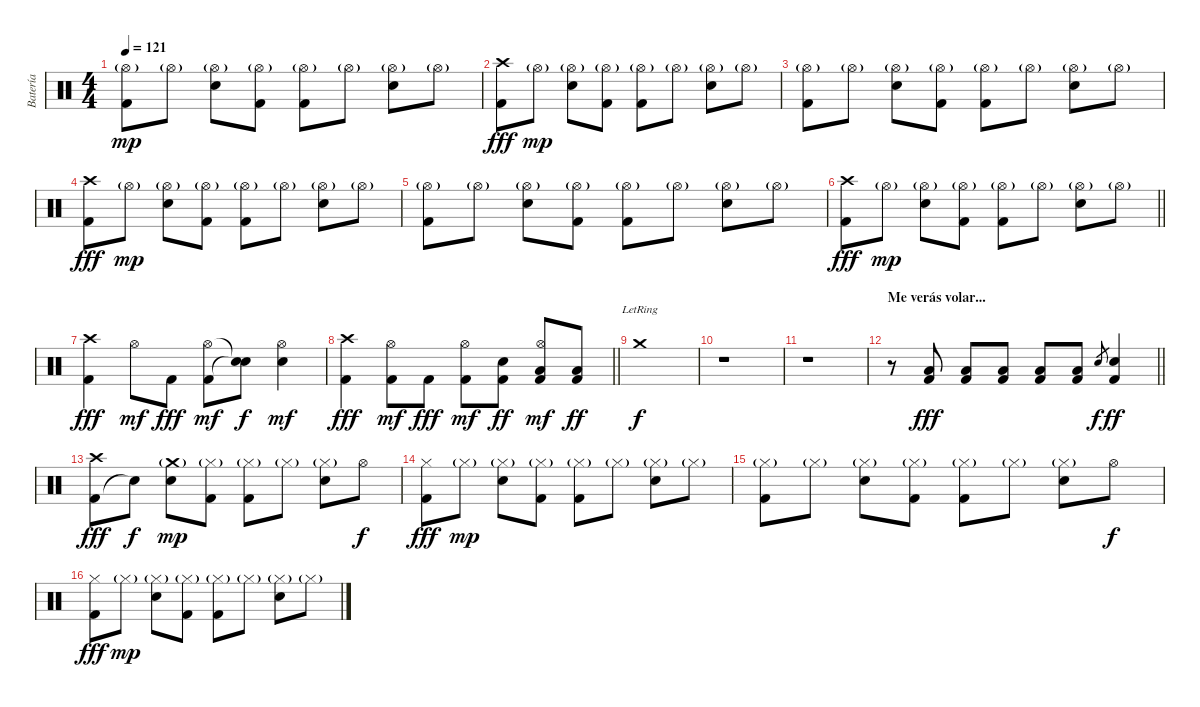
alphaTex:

\track ("Batería" "Batería") {instrument percussion}
\staff {score}
\articulation defaults
\ts (4 4)
\tempo 121
\clef neutral
\ks c
("Kick (hit) 2" "Hi-Hat (open)"{g}).8{dy mp} "Hi-Hat (open)"{g}.8 ("Snare (hit) 2" "Hi-Hat (open)"{g}).8 ("Kick (hit) 2" "Hi-Hat (open)"{g}).8 ("Kick (hit) 2" "Hi-Hat (open)"{g}).8 "Hi-Hat (open)"{g}.8 ("Snare (hit) 2" "Hi-Hat (open)"{g}).8 "Hi-Hat (open)"{g}.8 |
("Kick (hit) 2" "Crash high (hit)").8{dy fff} "Hi-Hat (open)"{g}.8{dy mp} ("Snare (hit) 2" "Hi-Hat (open)"{g}).8 ("Kick (hit) 2" "Hi-Hat (open)"{g}).8 ("Kick (hit) 2" "Hi-Hat (open)"{g}).8 "Hi-Hat (open)"{g}.8 ("Snare (hit) 2" "Hi-Hat (open)"{g}).8 "Hi-Hat (open)"{g}.8 |
("Kick (hit) 2" "Hi-Hat (open)"{g}).8 "Hi-Hat (open)"{g}.8 ("Snare (hit) 2" "Hi-Hat (open)"{g}).8 ("Kick (hit) 2" "Hi-Hat (open)"{g}).8 ("Kick (hit) 2" "Hi-Hat (open)"{g}).8 "Hi-Hat (open)"{g}.8 ("Snare (hit) 2" "Hi-Hat (open)"{g}).8 "Hi-Hat (open)"{g}.8 |
("Kick (hit) 2" "Crash high (hit)").8{dy fff} "Hi-Hat (open)"{g}.8{dy mp} ("Snare (hit) 2" "Hi-Hat (open)"{g}).8 ("Kick (hit) 2" "Hi-Hat (open)"{g}).8 ("Kick (hit) 2" "Hi-Hat (open)"{g}).8 "Hi-Hat (open)"{g}.8 ("Snare (hit) 2" "Hi-Hat (open)"{g}).8 "Hi-Hat (open)"{g}.8 |
("Kick (hit) 2" "Hi-Hat (open)"{g}).8 "Hi-Hat (open)"{g}.8 ("Snare (hit) 2" "Hi-Hat (open)"{g}).8 ("Kick (hit) 2" "Hi-Hat (open)"{g}).8 ("Kick (hit) 2" "Hi-Hat (open)"{g}).8 "Hi-Hat (open)"{g}.8 ("Snare (hit) 2" "Hi-Hat (open)"{g}).8 "Hi-Hat (open)"{g}.8 |
\barLineRight lightlight
("Kick (hit) 2" "Crash high (hit)").8{dy fff} "Hi-Hat (open)"{g}.8{dy mp} ("Snare (hit) 2" "Hi-Hat (open)"{g}).8 ("Kick (hit) 2" "Hi-Hat (open)"{g}).8 ("Kick (hit) 2" "Hi-Hat (open)"{g}).8 "Hi-Hat (open)"{g}.8 ("Snare (hit) 2" "Hi-Hat (open)"{g}).8 "Hi-Hat (open)"{g}.8 |
("Kick (hit) 2" "Crash high (hit)").4{dy fff} "Hi-Hat (open)".8{dy mf} "Kick (hit) 2".8{dy fff} ("Kick (hit) 2" "Hi-Hat (open)").8{dy mf} ("Snare (hit)"{t} "Snare (hit)"{t}).8{dy f} ("Snare (hit) 2" "Hi-Hat (open)").4{dy mf} |
\barLineRight lightlight
("Kick (hit) 2" "Crash high (hit)").4{dy fff} ("Kick (hit) 2" "Hi-Hat (open)").8{dy mf} "Kick (hit) 2".8{dy fff} ("Kick (hit) 2" "Hi-Hat (open)").8{dy mf} ("Kick (hit) 2" "Snare (hit) 2").8{dy ff} ("Kick (hit) 2" "Low Tom (hit)" "Hi-Hat (open)").8{dy mf} ("Kick (hit) 2" "Low Floor Tom (hit)").8{dy ff} |
"Crash medium (hit)"{lr}.1{dy f} |
r.1 |
r.1 |
\section ("" "Me verás volar...")
\barLineRight lightlight
r.8 ("Kick (hit) 2" "Low Floor Tom (hit)").8{dy fff} ("Kick (hit) 2" "Low Floor Tom (hit)").8 ("Kick (hit) 2" "Low Floor Tom (hit)").8 ("Kick (hit) 2" "Low Floor Tom (hit)").8 ("Kick (hit) 2" "Low Floor Tom (hit)").8 "Snare (hit) 2".8{gr dy f} ("Kick (hit) 2" "Snare (hit) 2").4{dy ff} |
("Kick (hit) 2" "Crash high (hit)").8{dy fff} "Snare (hit)"{t}.8{dy f} ("Snare (hit) 2" "Crash medium (hit)"{g}).8{dy mp} ("Kick (hit) 2" "Hi-Hat (closed)"{g}).8 ("Kick (hit) 2" "Hi-Hat (closed)"{g}).8 "Hi-Hat (closed)"{g}.8 ("Snare (hit) 2" "Hi-Hat (closed)"{g}).8 "Hi-Hat (open)".8{dy f} |
("Kick (hit) 2" "Hi-Hat (closed)").8{dy fff} "Hi-Hat (closed)"{g}.8{dy mp} ("Snare (hit) 2" "Hi-Hat (closed)"{g}).8 ("Kick (hit) 2" "Hi-Hat (closed)"{g}).8 ("Kick (hit) 2" "Hi-Hat (closed)"{g}).8 "Hi-Hat (closed)"{g}.8 ("Snare (hit) 2" "Hi-Hat (closed)"{g}).8 "Hi-Hat (closed)"{g}.8 |
("Kick (hit) 2" "Hi-Hat (closed)"{g}).8 "Hi-Hat (closed)"{g}.8 ("Snare (hit) 2" "Hi-Hat (closed)"{g}).8 ("Kick (hit) 2" "Hi-Hat (closed)"{g}).8 ("Kick (hit) 2" "Hi-Hat (closed)"{g}).8 "Hi-Hat (closed)"{g}.8 ("Snare (hit) 2" "Hi-Hat (closed)"{g}).8 "Hi-Hat (open)".8{dy f} |
("Kick (hit) 2" "Hi-Hat (closed)").8{dy fff} "Hi-Hat (closed)"{g}.8{dy mp} ("Snare (hit) 2" "Hi-Hat (closed)"{g}).8 ("Kick (hit) 2" "Hi-Hat (closed)"{g}).8 ("Kick (hit) 2" "Hi-Hat (closed)"{g}).8 "Hi-Hat (closed)"{g}.8 ("Snare (hit) 2" "Hi-Hat (closed)"{g}).8 "Hi-Hat (closed)"{g}.8
